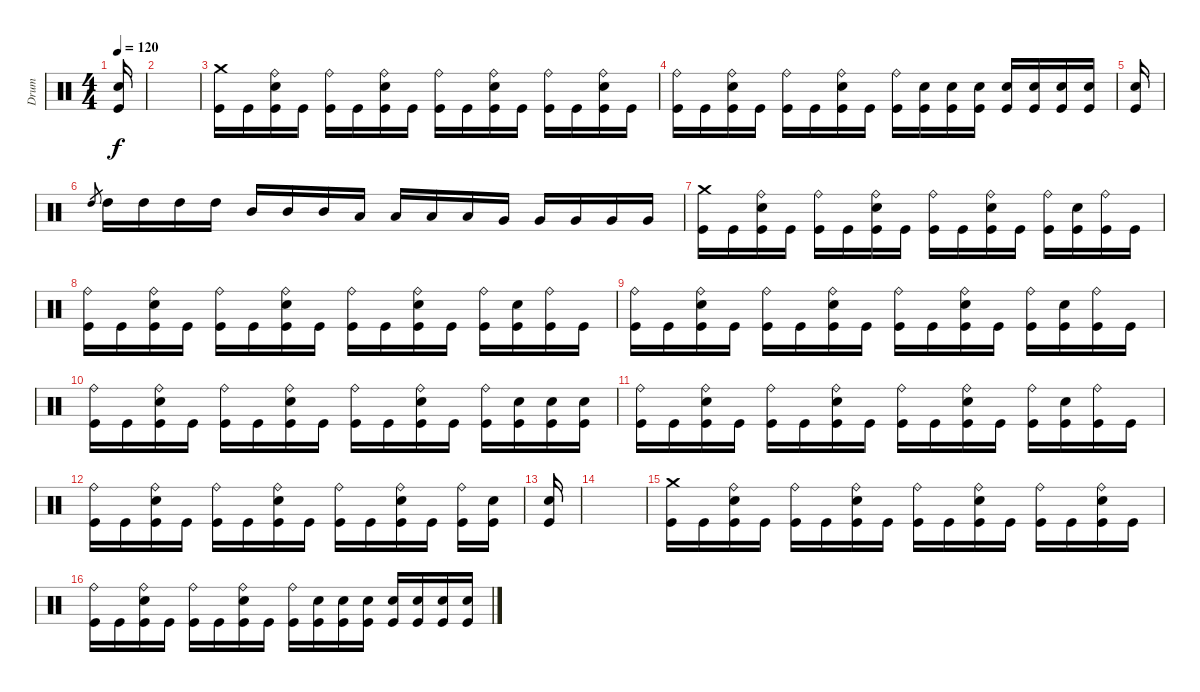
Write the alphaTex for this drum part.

\track ("Drum" "Drum") {instrument percussion}
\staff {score}
\articulation defaults
\ts (4 4)
\tempo 120
\clef neutral
\ks c
("Electric Snare (hit)" "Kick (hit)").16{dy f} |
|
("Crash medium (hit)" "Kick (hit)").16 "Kick (hit)".16 ("Ride (bell)" "Electric Snare (hit)" "Kick (hit)").16 "Kick (hit)".16 ("Ride (bell)" "Kick (hit)").16 "Kick (hit)".16 ("Ride (bell)" "Electric Snare (hit)" "Kick (hit)").16 "Kick (hit)".16 ("Ride (bell)" "Kick (hit)").16 "Kick (hit)".16 ("Ride (bell)" "Electric Snare (hit)" "Kick (hit)").16 "Kick (hit)".16 ("Ride (bell)" "Kick (hit)").16 "Kick (hit)".16 ("Ride (bell)" "Electric Snare (hit)" "Kick (hit)").16 "Kick (hit)".16 |
("Ride (bell)" "Kick (hit)").16 "Kick (hit)".16 ("Ride (bell)" "Electric Snare (hit)" "Kick (hit)").16 "Kick (hit)".16 ("Ride (bell)" "Kick (hit)").16 "Kick (hit)".16 ("Ride (bell)" "Electric Snare (hit)" "Kick (hit)").16 "Kick (hit)".16 ("Ride (bell)" "Kick (hit)").16 ("Electric Snare (hit)" "Kick (hit)").16 ("Electric Snare (hit)" "Kick (hit)").16 ("Electric Snare (hit)" "Kick (hit)").16 ("Electric Snare (hit)" "Kick (hit)").16 ("Electric Snare (hit)" "Kick (hit)").16 ("Electric Snare (hit)" "Kick (hit)").16 ("Electric Snare (hit)" "Kick (hit)").16 |
("Electric Snare (hit)" "Kick (hit)").16 |
"High Tom (hit)".8{gr} "High Tom (hit)".16 "High Tom (hit)".16 "High Tom (hit)".16 "High Tom (hit)".16 "Mid Tom (hit)".16 "Mid Tom (hit)".16 "Mid Tom (hit)".16 "Low Tom (hit)".16 "Low Tom (hit)".16 "Low Tom (hit)".16 "Low Tom (hit)".16 "Very Low Tom (hit)".16 "Very Low Tom (hit)".16 "Very Low Tom (hit)".16 "Very Low Tom (hit)".16 "Very Low Tom (hit)".16 |
("Crash medium (hit)" "Kick (hit)").16 "Kick (hit)".16 ("Ride (bell)" "Electric Snare (hit)" "Kick (hit)").16 "Kick (hit)".16 ("Ride (bell)" "Kick (hit)").16 "Kick (hit)".16 ("Ride (bell)" "Electric Snare (hit)" "Kick (hit)").16 "Kick (hit)".16 ("Ride (bell)" "Kick (hit)").16 "Kick (hit)".16 ("Ride (bell)" "Electric Snare (hit)" "Kick (hit)").16 "Kick (hit)".16 ("Ride (bell)" "Kick (hit)").16 ("Electric Snare (hit)" "Kick (hit)").16 ("Ride (bell)" "Kick (hit)").16 "Kick (hit)".16 |
("Ride (bell)" "Kick (hit)").16 "Kick (hit)".16 ("Ride (bell)" "Electric Snare (hit)" "Kick (hit)").16 "Kick (hit)".16 ("Ride (bell)" "Kick (hit)").16 "Kick (hit)".16 ("Ride (bell)" "Electric Snare (hit)" "Kick (hit)").16 "Kick (hit)".16 ("Ride (bell)" "Kick (hit)").16 "Kick (hit)".16 ("Ride (bell)" "Electric Snare (hit)" "Kick (hit)").16 "Kick (hit)".16 ("Ride (bell)" "Kick (hit)").16 ("Electric Snare (hit)" "Kick (hit)").16 ("Ride (bell)" "Kick (hit)").16 "Kick (hit)".16 |
("Ride (bell)" "Kick (hit)").16 "Kick (hit)".16 ("Ride (bell)" "Electric Snare (hit)" "Kick (hit)").16 "Kick (hit)".16 ("Ride (bell)" "Kick (hit)").16 "Kick (hit)".16 ("Ride (bell)" "Electric Snare (hit)" "Kick (hit)").16 "Kick (hit)".16 ("Ride (bell)" "Kick (hit)").16 "Kick (hit)".16 ("Ride (bell)" "Electric Snare (hit)" "Kick (hit)").16 "Kick (hit)".16 ("Ride (bell)" "Kick (hit)").16 ("Electric Snare (hit)" "Kick (hit)").16 ("Ride (bell)" "Kick (hit)").16 "Kick (hit)".16 |
("Ride (bell)" "Kick (hit)").16 "Kick (hit)".16 ("Ride (bell)" "Electric Snare (hit)" "Kick (hit)").16 "Kick (hit)".16 ("Ride (bell)" "Kick (hit)").16 "Kick (hit)".16 ("Ride (bell)" "Electric Snare (hit)" "Kick (hit)").16 "Kick (hit)".16 ("Ride (bell)" "Kick (hit)").16 "Kick (hit)".16 ("Ride (bell)" "Electric Snare (hit)" "Kick (hit)").16 "Kick (hit)".16 ("Ride (bell)" "Kick (hit)").16 ("Electric Snare (hit)" "Kick (hit)").16 ("Electric Snare (hit)" "Kick (hit)").16 ("Electric Snare (hit)" "Kick (hit)").16 |
("Ride (bell)" "Kick (hit)").16 "Kick (hit)".16 ("Ride (bell)" "Electric Snare (hit)" "Kick (hit)").16 "Kick (hit)".16 ("Ride (bell)" "Kick (hit)").16 "Kick (hit)".16 ("Ride (bell)" "Electric Snare (hit)" "Kick (hit)").16 "Kick (hit)".16 ("Ride (bell)" "Kick (hit)").16 "Kick (hit)".16 ("Ride (bell)" "Electric Snare (hit)" "Kick (hit)").16 "Kick (hit)".16 ("Ride (bell)" "Kick (hit)").16 ("Electric Snare (hit)" "Kick (hit)").16 ("Ride (bell)" "Kick (hit)").16 "Kick (hit)".16 |
("Ride (bell)" "Kick (hit)").16 "Kick (hit)".16 ("Ride (bell)" "Electric Snare (hit)" "Kick (hit)").16 "Kick (hit)".16 ("Ride (bell)" "Kick (hit)").16 "Kick (hit)".16 ("Ride (bell)" "Electric Snare (hit)" "Kick (hit)").16 "Kick (hit)".16 ("Ride (bell)" "Kick (hit)").16 "Kick (hit)".16 ("Ride (bell)" "Electric Snare (hit)" "Kick (hit)").16 "Kick (hit)".16 ("Ride (bell)" "Kick (hit)").16 ("Electric Snare (hit)" "Kick (hit)").16 |
("Electric Snare (hit)" "Kick (hit)").16 |
|
("Crash medium (hit)" "Kick (hit)").16 "Kick (hit)".16 ("Ride (bell)" "Electric Snare (hit)" "Kick (hit)").16 "Kick (hit)".16 ("Ride (bell)" "Kick (hit)").16 "Kick (hit)".16 ("Ride (bell)" "Electric Snare (hit)" "Kick (hit)").16 "Kick (hit)".16 ("Ride (bell)" "Kick (hit)").16 "Kick (hit)".16 ("Ride (bell)" "Electric Snare (hit)" "Kick (hit)").16 "Kick (hit)".16 ("Ride (bell)" "Kick (hit)").16 "Kick (hit)".16 ("Ride (bell)" "Electric Snare (hit)" "Kick (hit)").16 "Kick (hit)".16 |
("Ride (bell)" "Kick (hit)").16 "Kick (hit)".16 ("Ride (bell)" "Electric Snare (hit)" "Kick (hit)").16 "Kick (hit)".16 ("Ride (bell)" "Kick (hit)").16 "Kick (hit)".16 ("Ride (bell)" "Electric Snare (hit)" "Kick (hit)").16 "Kick (hit)".16 ("Ride (bell)" "Kick (hit)").16 ("Electric Snare (hit)" "Kick (hit)").16 ("Electric Snare (hit)" "Kick (hit)").16 ("Electric Snare (hit)" "Kick (hit)").16 ("Electric Snare (hit)" "Kick (hit)").16 ("Electric Snare (hit)" "Kick (hit)").16 ("Electric Snare (hit)" "Kick (hit)").16 ("Electric Snare (hit)" "Kick (hit)").16
